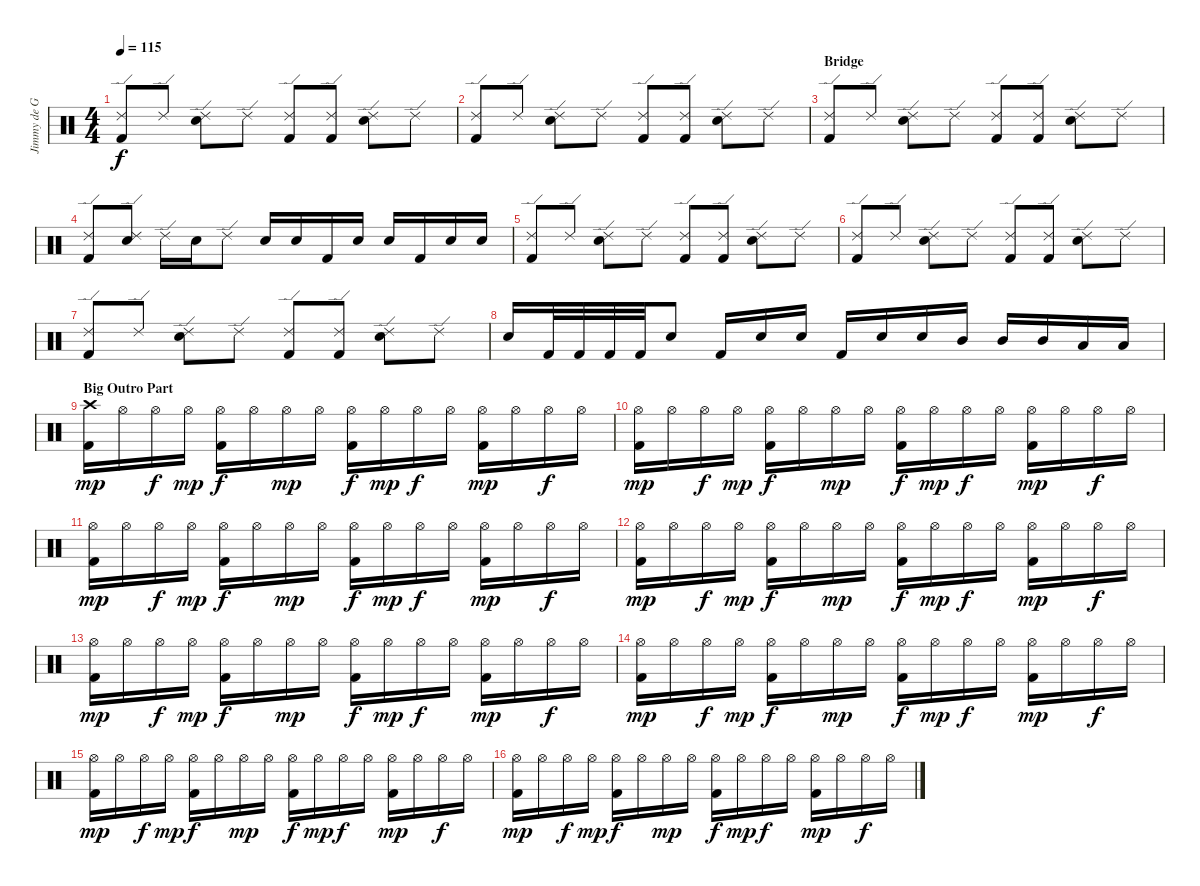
\track ("Jimmy de Grasso" "Jimmy de G") {instrument percussion}
\staff {score}
\articulation defaults
\ts (4 4)
\tempo 115
\clef neutral
\ks c
("Ride (edge) 2" "Kick (hit) 2").8{dy f} "Ride (edge) 2".8 ("Ride (edge) 2" "Snare (hit) 2").8 "Ride (edge) 2".8 ("Ride (edge) 2" "Kick (hit) 2").8 ("Ride (edge) 2" "Kick (hit) 2").8 ("Ride (edge) 2" "Snare (hit) 2").8 "Ride (edge) 2".8 |
("Ride (edge) 2" "Kick (hit) 2").8 "Ride (edge) 2".8 ("Ride (edge) 2" "Snare (hit) 2").8 "Ride (edge) 2".8 ("Ride (edge) 2" "Kick (hit) 2").8 ("Ride (edge) 2" "Kick (hit) 2").8 ("Ride (edge) 2" "Snare (hit) 2").8 "Ride (edge) 2".8 |
\section ("" "Bridge")
("Ride (edge) 2" "Kick (hit) 2").8 "Ride (edge) 2".8 ("Ride (edge) 2" "Snare (hit) 2").8 "Ride (edge) 2".8 ("Ride (edge) 2" "Kick (hit) 2").8 ("Ride (edge) 2" "Kick (hit) 2").8 ("Ride (edge) 2" "Snare (hit) 2").8 "Ride (edge) 2".8 |
("Ride (edge) 2" "Kick (hit) 2").8 ("Ride (edge) 2" "Snare (hit) 2").8 "Ride (edge) 2".16 "Snare (hit) 2".16 "Ride (edge) 2".8 "Snare (hit) 2".16 "Snare (hit) 2".16 "Kick (hit) 2".16 "Snare (hit) 2".16 "Snare (hit) 2".16 "Kick (hit) 2".16 "Snare (hit) 2".16 "Snare (hit) 2".16 |
("Ride (edge) 2" "Kick (hit) 2").8 "Ride (edge) 2".8 ("Ride (edge) 2" "Snare (hit) 2").8 "Ride (edge) 2".8 ("Ride (edge) 2" "Kick (hit) 2").8 ("Ride (edge) 2" "Kick (hit) 2").8 ("Ride (edge) 2" "Snare (hit) 2").8 "Ride (edge) 2".8 |
("Ride (edge) 2" "Kick (hit) 2").8 "Ride (edge) 2".8 ("Ride (edge) 2" "Snare (hit) 2").8 "Ride (edge) 2".8 ("Ride (edge) 2" "Kick (hit) 2").8 ("Ride (edge) 2" "Kick (hit) 2").8 ("Ride (edge) 2" "Snare (hit) 2").8 "Ride (edge) 2".8 |
("Ride (edge) 2" "Kick (hit) 2").8 "Ride (edge) 2".8 ("Ride (edge) 2" "Snare (hit) 2").8 "Ride (edge) 2".8 ("Ride (edge) 2" "Kick (hit) 2").8 ("Ride (edge) 2" "Kick (hit) 2").8 ("Ride (edge) 2" "Snare (hit) 2").8 "Ride (edge) 2".8 |
"Snare (hit) 2".16 "Kick (hit) 2".32 "Kick (hit) 2".32 "Kick (hit) 2".32 "Kick (hit) 2".32 "Snare (hit) 2".8 "Kick (hit) 2".16 "Snare (hit) 2".16 "Snare (hit) 2".16 "Kick (hit) 2".16 "Snare (hit) 2".16 "Snare (hit) 2".16 "Mid Tom (hit)".16 "Mid Tom (hit)".16 "Mid Tom (hit)".16 "Low Tom (hit)".16 "Low Tom (hit)".16 |
\section ("" "Big Outro Part")
("Crash high (hit)" "Kick (hit) 2").16{dy mp} "Hi-Hat (open)".16 "Hi-Hat (open)".16{dy f} "Hi-Hat (open)".16{dy mp} ("Hi-Hat (open)" "Kick (hit) 2").16{dy f} "Hi-Hat (open)".16 "Hi-Hat (open)".16{dy mp} "Hi-Hat (open)".16 ("Hi-Hat (open)" "Kick (hit) 2").16{dy f} "Hi-Hat (open)".16{dy mp} "Hi-Hat (open)".16{dy f} "Hi-Hat (open)".16 ("Hi-Hat (open)" "Kick (hit) 2").16{dy mp} "Hi-Hat (open)".16 "Hi-Hat (open)".16{dy f} "Hi-Hat (open)".16 |
("Hi-Hat (open)" "Kick (hit) 2").16{dy mp} "Hi-Hat (open)".16 "Hi-Hat (open)".16{dy f} "Hi-Hat (open)".16{dy mp} ("Hi-Hat (open)" "Kick (hit) 2").16{dy f} "Hi-Hat (open)".16 "Hi-Hat (open)".16{dy mp} "Hi-Hat (open)".16 ("Hi-Hat (open)" "Kick (hit) 2").16{dy f} "Hi-Hat (open)".16{dy mp} "Hi-Hat (open)".16{dy f} "Hi-Hat (open)".16 ("Hi-Hat (open)" "Kick (hit) 2").16{dy mp} "Hi-Hat (open)".16 "Hi-Hat (open)".16{dy f} "Hi-Hat (open)".16 |
("Hi-Hat (open)" "Kick (hit) 2").16{dy mp} "Hi-Hat (open)".16 "Hi-Hat (open)".16{dy f} "Hi-Hat (open)".16{dy mp} ("Hi-Hat (open)" "Kick (hit) 2").16{dy f} "Hi-Hat (open)".16 "Hi-Hat (open)".16{dy mp} "Hi-Hat (open)".16 ("Hi-Hat (open)" "Kick (hit) 2").16{dy f} "Hi-Hat (open)".16{dy mp} "Hi-Hat (open)".16{dy f} "Hi-Hat (open)".16 ("Hi-Hat (open)" "Kick (hit) 2").16{dy mp} "Hi-Hat (open)".16 "Hi-Hat (open)".16{dy f} "Hi-Hat (open)".16 |
("Hi-Hat (open)" "Kick (hit) 2").16{dy mp} "Hi-Hat (open)".16 "Hi-Hat (open)".16{dy f} "Hi-Hat (open)".16{dy mp} ("Hi-Hat (open)" "Kick (hit) 2").16{dy f} "Hi-Hat (open)".16 "Hi-Hat (open)".16{dy mp} "Hi-Hat (open)".16 ("Hi-Hat (open)" "Kick (hit) 2").16{dy f} "Hi-Hat (open)".16{dy mp} "Hi-Hat (open)".16{dy f} "Hi-Hat (open)".16 ("Hi-Hat (open)" "Kick (hit) 2").16{dy mp} "Hi-Hat (open)".16 "Hi-Hat (open)".16{dy f} "Hi-Hat (open)".16 |
("Hi-Hat (open)" "Kick (hit) 2").16{dy mp} "Hi-Hat (open)".16 "Hi-Hat (open)".16{dy f} "Hi-Hat (open)".16{dy mp} ("Hi-Hat (open)" "Kick (hit) 2").16{dy f} "Hi-Hat (open)".16 "Hi-Hat (open)".16{dy mp} "Hi-Hat (open)".16 ("Hi-Hat (open)" "Kick (hit) 2").16{dy f} "Hi-Hat (open)".16{dy mp} "Hi-Hat (open)".16{dy f} "Hi-Hat (open)".16 ("Hi-Hat (open)" "Kick (hit) 2").16{dy mp} "Hi-Hat (open)".16 "Hi-Hat (open)".16{dy f} "Hi-Hat (open)".16 |
("Hi-Hat (open)" "Kick (hit) 2").16{dy mp} "Hi-Hat (open)".16 "Hi-Hat (open)".16{dy f} "Hi-Hat (open)".16{dy mp} ("Hi-Hat (open)" "Kick (hit) 2").16{dy f} "Hi-Hat (open)".16 "Hi-Hat (open)".16{dy mp} "Hi-Hat (open)".16 ("Hi-Hat (open)" "Kick (hit) 2").16{dy f} "Hi-Hat (open)".16{dy mp} "Hi-Hat (open)".16{dy f} "Hi-Hat (open)".16 ("Hi-Hat (open)" "Kick (hit) 2").16{dy mp} "Hi-Hat (open)".16 "Hi-Hat (open)".16{dy f} "Hi-Hat (open)".16 |
("Hi-Hat (open)" "Kick (hit) 2").16{dy mp} "Hi-Hat (open)".16 "Hi-Hat (open)".16{dy f} "Hi-Hat (open)".16{dy mp} ("Hi-Hat (open)" "Kick (hit) 2").16{dy f} "Hi-Hat (open)".16 "Hi-Hat (open)".16{dy mp} "Hi-Hat (open)".16 ("Hi-Hat (open)" "Kick (hit) 2").16{dy f} "Hi-Hat (open)".16{dy mp} "Hi-Hat (open)".16{dy f} "Hi-Hat (open)".16 ("Hi-Hat (open)" "Kick (hit) 2").16{dy mp} "Hi-Hat (open)".16 "Hi-Hat (open)".16{dy f} "Hi-Hat (open)".16 |
("Hi-Hat (open)" "Kick (hit) 2").16{dy mp} "Hi-Hat (open)".16 "Hi-Hat (open)".16{dy f} "Hi-Hat (open)".16{dy mp} ("Hi-Hat (open)" "Kick (hit) 2").16{dy f} "Hi-Hat (open)".16 "Hi-Hat (open)".16{dy mp} "Hi-Hat (open)".16 ("Hi-Hat (open)" "Kick (hit) 2").16{dy f} "Hi-Hat (open)".16{dy mp} "Hi-Hat (open)".16{dy f} "Hi-Hat (open)".16 ("Hi-Hat (open)" "Kick (hit) 2").16{dy mp} "Hi-Hat (open)".16 "Hi-Hat (open)".16{dy f} "Hi-Hat (open)".16
